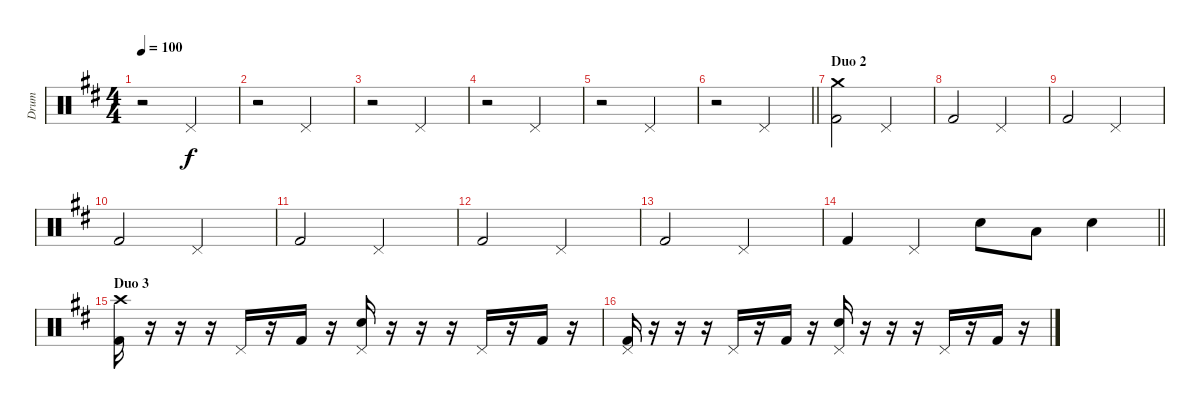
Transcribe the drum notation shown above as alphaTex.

\track ("Drum" "Drum") {instrument percussion}
\staff {score}
\articulation defaults
\ts (4 4)
\tempo 100
\clef neutral
\ks d
r.2{dy f} "Pedal Hi-Hat (hit)".2 |
r.2 "Pedal Hi-Hat (hit)".2 |
r.2 "Pedal Hi-Hat (hit)".2 |
r.2 "Pedal Hi-Hat (hit)".2 |
r.2 "Pedal Hi-Hat (hit)".2 |
\barLineRight lightlight
r.2 "Pedal Hi-Hat (hit)".2 |
\section ("" "Duo 2")
("Kick (hit) 2" "Crash medium (hit)").2 "Pedal Hi-Hat (hit)".2 |
"Kick (hit) 2".2 "Pedal Hi-Hat (hit)".2 |
"Kick (hit) 2".2 "Pedal Hi-Hat (hit)".2 |
"Kick (hit) 2".2 "Pedal Hi-Hat (hit)".2 |
"Kick (hit) 2".2 "Pedal Hi-Hat (hit)".2 |
"Kick (hit) 2".2 "Pedal Hi-Hat (hit)".2 |
"Kick (hit) 2".2 "Pedal Hi-Hat (hit)".2 |
\barLineRight lightlight "Kick (hit) 2".4 "Pedal Hi-Hat (hit)".4 "Electric Snare (hit)".8 "Low Tom (hit)".8 "Electric Snare (hit)".4
|
\section ("" "Duo 3")
("Kick (hit) 2" "Crash high (hit)").16 r.16 r.16 r.16 "Pedal Hi-Hat (hit)".16 r.16 "Kick (hit) 2".16 r.16 ("Electric Snare (hit)" "Pedal Hi-Hat (hit)").16 r.16 r.16 r.16 "Pedal Hi-Hat (hit)".16 r.16 "Kick (hit) 2".16 r.16 |
("Kick (hit) 2" "Pedal Hi-Hat (hit)").16 r.16 r.16 r.16 "Pedal Hi-Hat (hit)".16 r.16 "Kick (hit) 2".16 r.16 ("Electric Snare (hit)" "Pedal Hi-Hat (hit)").16 r.16 r.16 r.16 "Pedal Hi-Hat (hit)".16 r.16 "Kick (hit) 2".16 r.16
